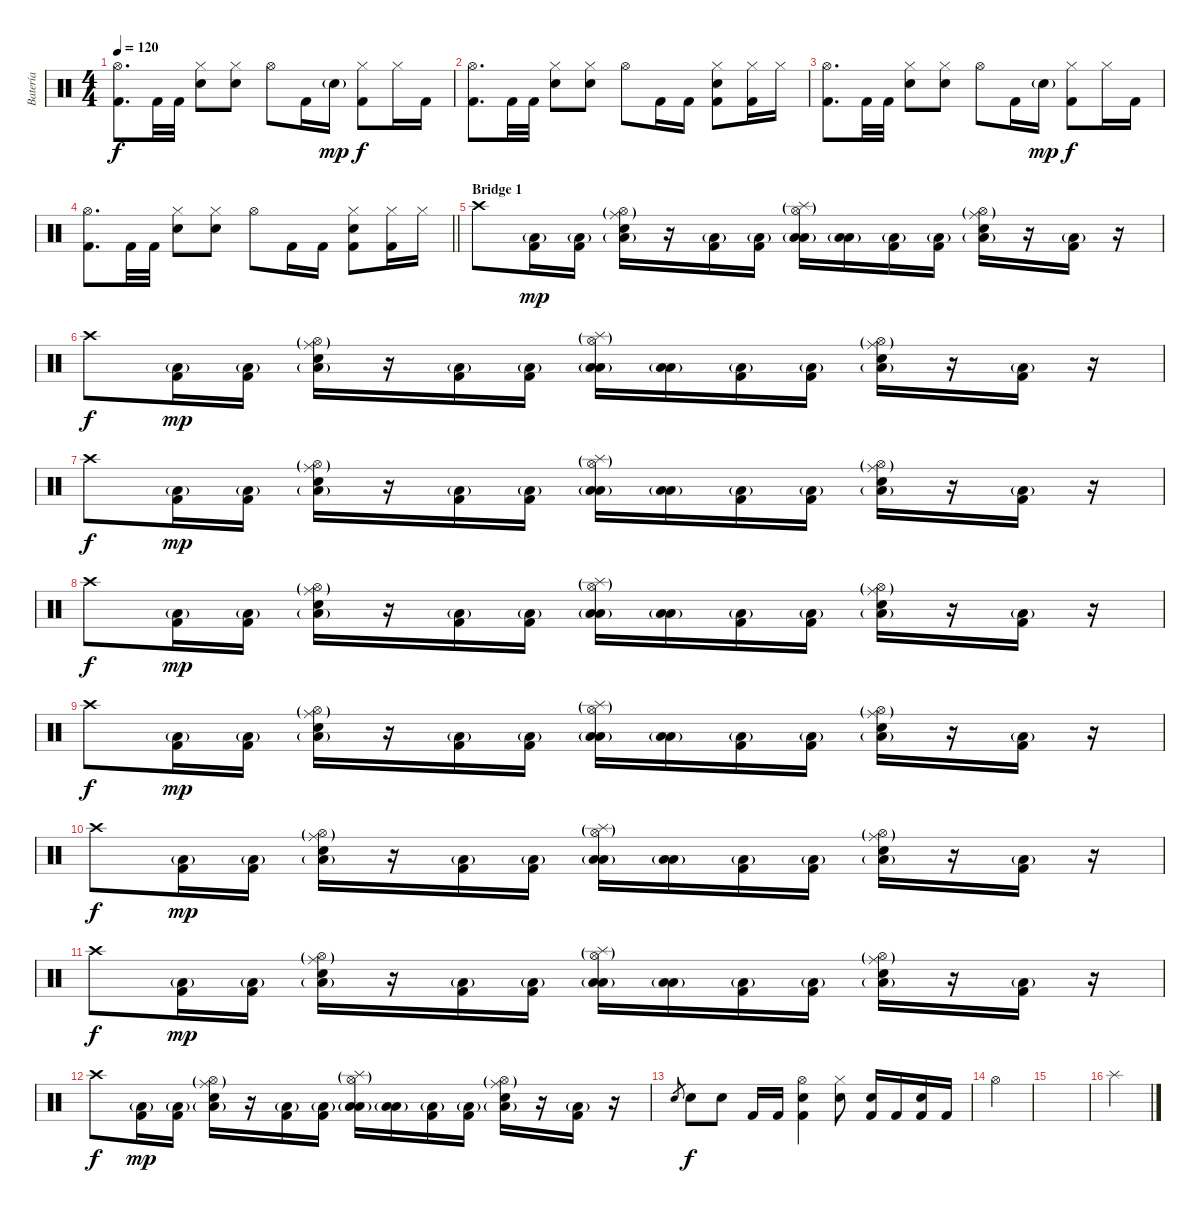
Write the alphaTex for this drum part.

\track ("Batería" "Batería") {instrument percussion}
\staff {score}
\articulation defaults
\ts (4 4)
\tempo 120
\clef neutral
\ks c
("Hi-Hat (open)" "Kick (hit) 2").8{d dy f} "Kick (hit) 2".32 "Kick (hit) 2".32 ("Hi-Hat (closed)" "Electric Snare (hit)").8 ("Hi-Hat (closed)" "Electric Snare (hit)").8 "Hi-Hat (open)".8 "Kick (hit) 2".16 "Electric Snare (hit)"{g}.16{dy mp} ("Hi-Hat (closed)" "Kick (hit) 2").8{dy f} "Hi-Hat (closed)".16 "Kick (hit) 2".16 |
("Hi-Hat (open)" "Kick (hit) 2").8{d} "Kick (hit) 2".32 "Kick (hit) 2".32 ("Hi-Hat (closed)" "Electric Snare (hit)").8 ("Hi-Hat (closed)" "Electric Snare (hit)").8 "Hi-Hat (open)".8 "Kick (hit) 2".16 "Kick (hit) 2".16 ("Hi-Hat (closed)" "Electric Snare (hit)" "Kick (hit) 2").8 ("Hi-Hat (closed)" "Kick (hit) 2").16 "Hi-Hat (closed)".16 |
("Hi-Hat (open)" "Kick (hit) 2").8{d} "Kick (hit) 2".32 "Kick (hit) 2".32 ("Hi-Hat (closed)" "Electric Snare (hit)").8 ("Hi-Hat (closed)" "Electric Snare (hit)").8 "Hi-Hat (open)".8 "Kick (hit) 2".16 "Electric Snare (hit)"{g}.16{dy mp} ("Hi-Hat (closed)" "Kick (hit) 2").8{dy f} "Hi-Hat (closed)".16 "Kick (hit) 2".16 |
\barLineRight lightlight
("Hi-Hat (open)" "Kick (hit) 2").8{d} "Kick (hit) 2".32 "Kick (hit) 2".32 ("Hi-Hat (closed)" "Electric Snare (hit)").8 ("Hi-Hat (closed)" "Electric Snare (hit)").8 "Hi-Hat (open)".8 "Kick (hit) 2".16 "Kick (hit) 2".16 ("Hi-Hat (closed)" "Electric Snare (hit)" "Kick (hit) 2").8 ("Hi-Hat (closed)" "Kick (hit) 2").16 "Hi-Hat (closed)".16 |
\section ("" "Bridge 1")
"Crash high (hit)".8 ("Low Floor Tom (hit)"{g} "Kick (hit) 2").16{dy mp} ("Low Floor Tom (hit)"{g} "Kick (hit) 2").16 ("Ride (middle)"{g} "Hi-Hat (open)"{g} "Electric Snare (hit)" "Low Floor Tom (hit)"{g}).16 r.16 ("Low Floor Tom (hit)"{g} "Kick (hit) 2").16 ("Low Floor Tom (hit)"{g} "Kick (hit) 2").16 ("Hi-Hat (open)"{g} "Splash (hit)"{g} "Low Tom (hit)" "Low Floor Tom (hit)"{g}).16 ("Low Tom (hit)" "Low Floor Tom (hit)"{g}).16 ("Low Floor Tom (hit)"{g} "Kick (hit) 2").16 ("Low Floor Tom (hit)"{g} "Kick (hit) 2").16 ("Ride (middle)"{g} "Hi-Hat (open)"{g} "Electric Snare (hit)" "Low Floor Tom (hit)"{g}).16 r.16 ("Low Floor Tom (hit)"{g} "Kick (hit) 2").16 r.16 |
"Crash high (hit)".8{dy f} ("Low Floor Tom (hit)"{g} "Kick (hit) 2").16{dy mp} ("Low Floor Tom (hit)"{g} "Kick (hit) 2").16 ("Ride (middle)"{g} "Hi-Hat (open)"{g} "Electric Snare (hit)" "Low Floor Tom (hit)"{g}).16 r.16 ("Low Floor Tom (hit)"{g} "Kick (hit) 2").16 ("Low Floor Tom (hit)"{g} "Kick (hit) 2").16 ("Hi-Hat (open)"{g} "Splash (hit)"{g} "Low Tom (hit)" "Low Floor Tom (hit)"{g}).16 ("Low Tom (hit)" "Low Floor Tom (hit)"{g}).16 ("Low Floor Tom (hit)"{g} "Kick (hit) 2").16 ("Low Floor Tom (hit)"{g} "Kick (hit) 2").16 ("Ride (middle)"{g} "Hi-Hat (open)"{g} "Electric Snare (hit)" "Low Floor Tom (hit)"{g}).16 r.16 ("Low Floor Tom (hit)"{g} "Kick (hit) 2").16 r.16 |
"Crash high (hit)".8{dy f} ("Low Floor Tom (hit)"{g} "Kick (hit) 2").16{dy mp} ("Low Floor Tom (hit)"{g} "Kick (hit) 2").16 ("Ride (middle)"{g} "Hi-Hat (open)"{g} "Electric Snare (hit)" "Low Floor Tom (hit)"{g}).16 r.16 ("Low Floor Tom (hit)"{g} "Kick (hit) 2").16 ("Low Floor Tom (hit)"{g} "Kick (hit) 2").16 ("Hi-Hat (open)"{g} "Splash (hit)"{g} "Low Tom (hit)" "Low Floor Tom (hit)"{g}).16 ("Low Tom (hit)" "Low Floor Tom (hit)"{g}).16 ("Low Floor Tom (hit)"{g} "Kick (hit) 2").16 ("Low Floor Tom (hit)"{g} "Kick (hit) 2").16 ("Ride (middle)"{g} "Hi-Hat (open)"{g} "Electric Snare (hit)" "Low Floor Tom (hit)"{g}).16 r.16 ("Low Floor Tom (hit)"{g} "Kick (hit) 2").16 r.16 |
"Crash high (hit)".8{dy f} ("Low Floor Tom (hit)"{g} "Kick (hit) 2").16{dy mp} ("Low Floor Tom (hit)"{g} "Kick (hit) 2").16 ("Ride (middle)"{g} "Hi-Hat (open)"{g} "Electric Snare (hit)" "Low Floor Tom (hit)"{g}).16 r.16 ("Low Floor Tom (hit)"{g} "Kick (hit) 2").16 ("Low Floor Tom (hit)"{g} "Kick (hit) 2").16 ("Hi-Hat (open)"{g} "Splash (hit)"{g} "Low Tom (hit)" "Low Floor Tom (hit)"{g}).16 ("Low Tom (hit)" "Low Floor Tom (hit)"{g}).16 ("Low Floor Tom (hit)"{g} "Kick (hit) 2").16 ("Low Floor Tom (hit)"{g} "Kick (hit) 2").16 ("Ride (middle)"{g} "Hi-Hat (open)"{g} "Electric Snare (hit)" "Low Floor Tom (hit)"{g}).16 r.16 ("Low Floor Tom (hit)"{g} "Kick (hit) 2").16 r.16 |
"Crash high (hit)".8{dy f} ("Low Floor Tom (hit)"{g} "Kick (hit) 2").16{dy mp} ("Low Floor Tom (hit)"{g} "Kick (hit) 2").16 ("Ride (middle)"{g} "Hi-Hat (open)"{g} "Electric Snare (hit)" "Low Floor Tom (hit)"{g}).16 r.16 ("Low Floor Tom (hit)"{g} "Kick (hit) 2").16 ("Low Floor Tom (hit)"{g} "Kick (hit) 2").16 ("Hi-Hat (open)"{g} "Splash (hit)"{g} "Low Tom (hit)" "Low Floor Tom (hit)"{g}).16 ("Low Tom (hit)" "Low Floor Tom (hit)"{g}).16 ("Low Floor Tom (hit)"{g} "Kick (hit) 2").16 ("Low Floor Tom (hit)"{g} "Kick (hit) 2").16 ("Ride (middle)"{g} "Hi-Hat (open)"{g} "Electric Snare (hit)" "Low Floor Tom (hit)"{g}).16 r.16 ("Low Floor Tom (hit)"{g} "Kick (hit) 2").16 r.16 |
"Crash high (hit)".8{dy f} ("Low Floor Tom (hit)"{g} "Kick (hit) 2").16{dy mp} ("Low Floor Tom (hit)"{g} "Kick (hit) 2").16 ("Ride (middle)"{g} "Hi-Hat (open)"{g} "Electric Snare (hit)" "Low Floor Tom (hit)"{g}).16 r.16 ("Low Floor Tom (hit)"{g} "Kick (hit) 2").16 ("Low Floor Tom (hit)"{g} "Kick (hit) 2").16 ("Hi-Hat (open)"{g} "Splash (hit)"{g} "Low Tom (hit)" "Low Floor Tom (hit)"{g}).16 ("Low Tom (hit)" "Low Floor Tom (hit)"{g}).16 ("Low Floor Tom (hit)"{g} "Kick (hit) 2").16 ("Low Floor Tom (hit)"{g} "Kick (hit) 2").16 ("Ride (middle)"{g} "Hi-Hat (open)"{g} "Electric Snare (hit)" "Low Floor Tom (hit)"{g}).16 r.16 ("Low Floor Tom (hit)"{g} "Kick (hit) 2").16 r.16 |
"Crash high (hit)".8{dy f} ("Low Floor Tom (hit)"{g} "Kick (hit) 2").16{dy mp} ("Low Floor Tom (hit)"{g} "Kick (hit) 2").16 ("Ride (middle)"{g} "Hi-Hat (open)"{g} "Electric Snare (hit)" "Low Floor Tom (hit)"{g}).16 r.16 ("Low Floor Tom (hit)"{g} "Kick (hit) 2").16 ("Low Floor Tom (hit)"{g} "Kick (hit) 2").16 ("Hi-Hat (open)"{g} "Splash (hit)"{g} "Low Tom (hit)" "Low Floor Tom (hit)"{g}).16 ("Low Tom (hit)" "Low Floor Tom (hit)"{g}).16 ("Low Floor Tom (hit)"{g} "Kick (hit) 2").16 ("Low Floor Tom (hit)"{g} "Kick (hit) 2").16 ("Ride (middle)"{g} "Hi-Hat (open)"{g} "Electric Snare (hit)" "Low Floor Tom (hit)"{g}).16 r.16 ("Low Floor Tom (hit)"{g} "Kick (hit) 2").16 r.16 |
"Crash high (hit)".8{dy f} ("Low Floor Tom (hit)"{g} "Kick (hit) 2").16{dy mp} ("Low Floor Tom (hit)"{g} "Kick (hit) 2").16 ("Ride (middle)"{g} "Hi-Hat (open)"{g} "Electric Snare (hit)" "Low Floor Tom (hit)"{g}).16 r.16 ("Low Floor Tom (hit)"{g} "Kick (hit) 2").16 ("Low Floor Tom (hit)"{g} "Kick (hit) 2").16 ("Hi-Hat (open)"{g} "Splash (hit)"{g} "Low Tom (hit)" "Low Floor Tom (hit)"{g}).16 ("Low Tom (hit)" "Low Floor Tom (hit)"{g}).16 ("Low Floor Tom (hit)"{g} "Kick (hit) 2").16 ("Low Floor Tom (hit)"{g} "Kick (hit) 2").16 ("Ride (middle)"{g} "Hi-Hat (open)"{g} "Electric Snare (hit)" "Low Floor Tom (hit)"{g}).16 r.16 ("Low Floor Tom (hit)"{g} "Kick (hit) 2").16 r.16 |
"Electric Snare (hit)".8{gr} "Electric Snare (hit)".8{dy f} "Electric Snare (hit)".8 "Kick (hit) 2".16 "Kick (hit) 2".16 ("Hi-Hat (open)" "Electric Snare (hit)" "Kick (hit) 2").4 ("Hi-Hat (closed)" "Electric Snare (hit)").8 ("Electric Snare (hit)" "Kick (hit) 2").16 "Kick (hit) 2".16 ("Electric Snare (hit)" "Kick (hit) 2").16 "Kick (hit) 2".16 |
"Hi-Hat (open)".4 |
|
"Splash (hit)".4
